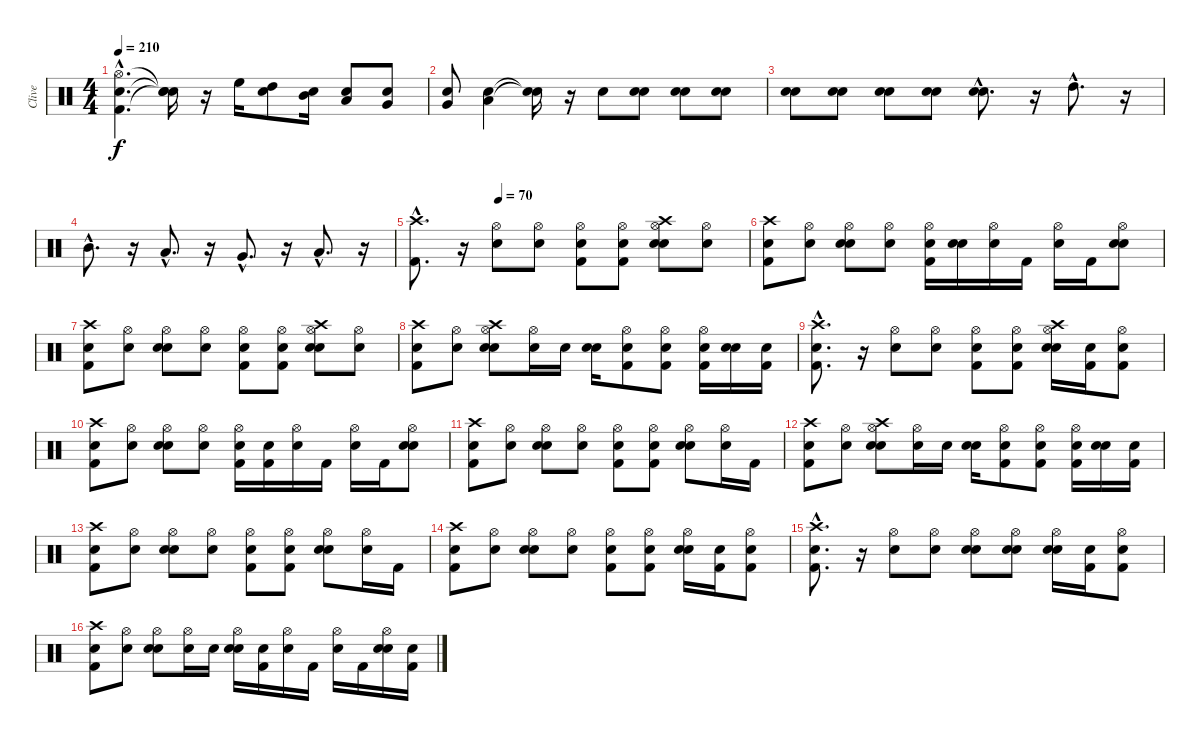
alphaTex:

\track ("Clive" "Clive") {instrument percussion}
\staff {score}
\articulation defaults
\ts (4 4)
\tempo 210
\clef neutral
\ks c
("Snare (hit)"{hac} "Kick (hit) 2"{hac} "Hi-Hat (open)"{hac}).4{d dy f} ("Snare (hit)"{t} "Snare (hit)"{t} "Snare (hit)"{t}).16 r.16 "High Floor Tom (hit)".16 ("Snare (hit)" "High Tom (hit)").8 ("Snare (hit)" "Mid Tom (hit)").16 ("Snare (hit)" "Low Tom (hit)").8 ("Snare (hit)" "Very Low Tom (hit)").8 |
("Snare (hit)" "Very Low Tom (hit)").8 ("Snare (hit)" "Low Floor Tom (hit)").4 ("Snare (hit)"{t} "Snare (hit)"{t}).16 r.16 "Snare (hit) 2".8 ("Snare (hit)" "Snare (hit) 2").8 ("Snare (hit)" "Snare (hit) 2").8 ("Snare (hit)" "Snare (hit) 2").8 |
("Snare (hit)" "Snare (hit) 2").8 ("Snare (hit)" "Snare (hit) 2").8 ("Snare (hit)" "Snare (hit) 2").8 ("Snare (hit)" "Snare (hit) 2").8 ("Snare (hit)"{hac} "Snare (hit) 2"{hac}).8{d} r.16 "High Tom (hit)"{hac}.8{d} r.16 |
"Mid Tom (hit)"{hac}.8{d} r.16 "Low Tom (hit)"{hac}.8{d} r.16 "Very Low Tom (hit)"{hac}.8{d} r.16 "Low Floor Tom (hit)"{hac}.8{d} r.16 |
\tempo (70 0.25)
("Kick (hit) 2"{hac} "Crash high (hit)"{hac}).8{d} r.16 ("Snare (hit) 2" "Hi-Hat (open)").8 ("Snare (hit)" "Hi-Hat (open)").8 ("Snare (hit)" "Kick (hit) 2" "Hi-Hat (open)").8 ("Snare (hit)" "Kick (hit) 2" "Hi-Hat (open)").8 ("Snare (hit)" "Snare (hit) 2" "Hi-Hat (open)" "Crash high (hit)").8 ("Snare (hit)" "Hi-Hat (open)").8 |
("Snare (hit)" "Kick (hit) 2" "Crash high (hit)").8 ("Snare (hit)" "Hi-Hat (open)").8 ("Snare (hit)" "Snare (hit) 2" "Hi-Hat (open)").8 ("Snare (hit)" "Hi-Hat (open)").8 ("Snare (hit)" "Kick (hit) 2" "Hi-Hat (open)").16 ("Snare (hit)" "Snare (hit) 2").16 ("Snare (hit)" "Hi-Hat (open)").16 "Kick (hit) 2".16 ("Snare (hit)" "Hi-Hat (open)").16 "Kick (hit) 2".16 ("Snare (hit)" "Snare (hit) 2" "Hi-Hat (open)").8 |
("Snare (hit)" "Kick (hit) 2" "Crash high (hit)").8 ("Snare (hit)" "Hi-Hat (open)").8 ("Snare (hit)" "Snare (hit) 2" "Hi-Hat (open)").8 ("Snare (hit)" "Hi-Hat (open)").8 ("Snare (hit)" "Kick (hit) 2" "Hi-Hat (open)").8 ("Snare (hit)" "Kick (hit) 2" "Hi-Hat (open)").8 ("Snare (hit)" "Snare (hit) 2" "Hi-Hat (open)" "Crash high (hit)").8 ("Snare (hit)" "Hi-Hat (open)").8 |
("Snare (hit)" "Kick (hit) 2" "Crash high (hit)").8 ("Snare (hit)" "Hi-Hat (open)").8 ("Snare (hit)" "Snare (hit) 2" "Hi-Hat (open)" "Crash high (hit)").8 ("Snare (hit)" "Hi-Hat (open)").16 "Snare (hit) 2".16 ("Snare (hit)" "Snare (hit) 2").16 ("Snare (hit)" "Kick (hit) 2" "Hi-Hat (open)").8 ("Snare (hit)" "Kick (hit) 2" "Hi-Hat (open)").8 ("Snare (hit)" "Kick (hit) 2" "Hi-Hat (open)").16 ("Snare (hit)" "Snare (hit) 2").16 ("Snare (hit)" "Kick (hit) 2").16 |
("Snare (hit)"{hac} "Kick (hit) 2"{hac} "Crash high (hit)"{hac}).8{d} r.16 ("Snare (hit) 2" "Hi-Hat (open)").8 ("Snare (hit)" "Hi-Hat (open)").8 ("Snare (hit)" "Kick (hit) 2" "Hi-Hat (open)").8 ("Snare (hit)" "Kick (hit) 2" "Hi-Hat (open)").8 ("Snare (hit)" "Snare (hit) 2" "Hi-Hat (open)" "Crash high (hit)").16 ("Snare (hit)" "Kick (hit) 2").16 ("Snare (hit)" "Kick (hit) 2" "Hi-Hat (open)").8 |
("Snare (hit)" "Kick (hit) 2" "Crash high (hit)").8 ("Snare (hit)" "Hi-Hat (open)").8 ("Snare (hit)" "Snare (hit) 2" "Hi-Hat (open)").8 ("Snare (hit)" "Hi-Hat (open)").8 ("Snare (hit)" "Kick (hit) 2" "Hi-Hat (open)").16 ("Snare (hit)" "Kick (hit) 2").16 ("Snare (hit)" "Hi-Hat (open)").16 "Kick (hit) 2".16 ("Snare (hit)" "Hi-Hat (open)").16 "Kick (hit) 2".16 ("Snare (hit)" "Snare (hit) 2" "Hi-Hat (open)").8 |
("Snare (hit)" "Kick (hit) 2" "Crash high (hit)").8 ("Snare (hit)" "Hi-Hat (open)").8 ("Snare (hit)" "Snare (hit) 2" "Hi-Hat (open)").8 ("Snare (hit)" "Hi-Hat (open)").8 ("Snare (hit)" "Kick (hit) 2" "Hi-Hat (open)").8 ("Snare (hit)" "Kick (hit) 2" "Hi-Hat (open)").8 ("Snare (hit)" "Snare (hit) 2" "Hi-Hat (open)").8 ("Snare (hit)" "Hi-Hat (open)").16 "Kick (hit) 2".16 |
("Snare (hit)" "Kick (hit) 2" "Crash high (hit)").8 ("Snare (hit)" "Hi-Hat (open)").8 ("Snare (hit)" "Snare (hit) 2" "Hi-Hat (open)" "Crash high (hit)").8 ("Snare (hit)" "Hi-Hat (open)").16 "Snare (hit) 2".16 ("Snare (hit)" "Snare (hit) 2").16 ("Snare (hit)" "Kick (hit) 2" "Hi-Hat (open)").8 ("Snare (hit)" "Kick (hit) 2" "Hi-Hat (open)").8 ("Snare (hit)" "Kick (hit) 2" "Hi-Hat (open)").16 ("Snare (hit)" "Snare (hit) 2").16 ("Snare (hit)" "Kick (hit) 2").16 |
("Snare (hit)" "Kick (hit) 2" "Crash high (hit)").8 ("Snare (hit)" "Hi-Hat (open)").8 ("Snare (hit)" "Snare (hit) 2" "Hi-Hat (open)").8 ("Snare (hit)" "Hi-Hat (open)").8 ("Snare (hit)" "Kick (hit) 2" "Hi-Hat (open)").8 ("Snare (hit)" "Kick (hit) 2" "Hi-Hat (open)").8 ("Snare (hit)" "Snare (hit) 2" "Hi-Hat (open)").8 ("Snare (hit)" "Hi-Hat (open)").16 "Kick (hit) 2".16 |
("Snare (hit)" "Kick (hit) 2" "Crash high (hit)").8 ("Snare (hit)" "Hi-Hat (open)").8 ("Snare (hit)" "Snare (hit) 2" "Hi-Hat (open)").8 ("Snare (hit)" "Hi-Hat (open)").8 ("Snare (hit)" "Kick (hit) 2" "Hi-Hat (open)").8 ("Snare (hit)" "Kick (hit) 2" "Hi-Hat (open)").8 ("Snare (hit)" "Snare (hit) 2" "Hi-Hat (open)").16 ("Snare (hit)" "Kick (hit) 2").16 ("Snare (hit)" "Kick (hit) 2" "Hi-Hat (open)").8 |
("Snare (hit)"{hac} "Kick (hit) 2"{hac} "Crash high (hit)"{hac}).8{d} r.16 ("Snare (hit) 2" "Hi-Hat (open)").8 ("Snare (hit)" "Hi-Hat (open)").8 ("Snare (hit)" "Snare (hit) 2" "Hi-Hat (open)").8 ("Snare (hit)" "Snare (hit) 2" "Hi-Hat (open)").8 ("Snare (hit)" "Snare (hit) 2" "Hi-Hat (open)").16 ("Snare (hit)" "Kick (hit) 2").16 ("Snare (hit)" "Kick (hit) 2" "Hi-Hat (open)").8 |
("Snare (hit)" "Kick (hit) 2" "Crash high (hit)").8 ("Snare (hit)" "Hi-Hat (open)").8 ("Snare (hit)" "Snare (hit) 2" "Hi-Hat (open)").8 ("Snare (hit)" "Hi-Hat (open)").16 "Snare (hit) 2".16 ("Snare (hit)" "Snare (hit) 2" "Hi-Hat (open)").16 ("Snare (hit)" "Kick (hit) 2").16 ("Snare (hit)" "Hi-Hat (open)").16 "Kick (hit) 2".16 ("Snare (hit)" "Hi-Hat (open)").16 "Kick (hit) 2".16 ("Snare (hit)" "Snare (hit) 2" "Hi-Hat (open)").16 ("Snare (hit)" "Kick (hit) 2").16
